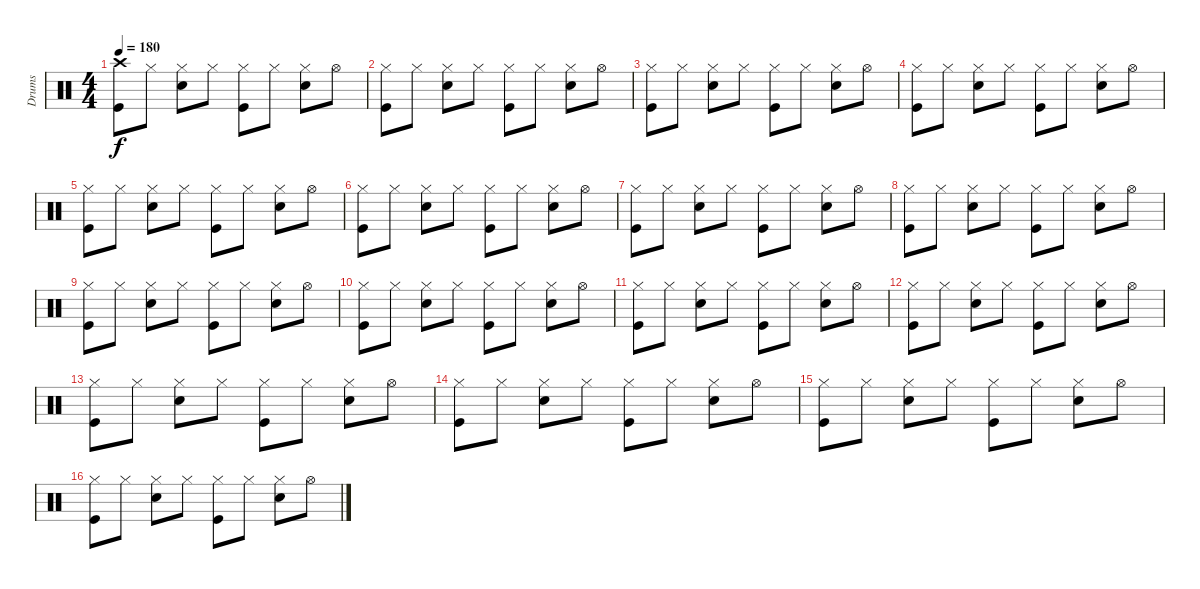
\track ("Drums" "Drums") {instrument percussion}
\staff {score}
\articulation defaults
\ts (4 4)
\tempo 180
\clef neutral
\ks c
("Kick (hit)" "Crash high (hit)").8{dy f} "Hi-Hat (closed)".8 ("Snare (hit) 2" "Hi-Hat (closed)").8 "Hi-Hat (closed)".8 ("Kick (hit)" "Hi-Hat (closed)").8 "Hi-Hat (closed)".8 ("Snare (hit) 2" "Hi-Hat (closed)").8 "Hi-Hat (open)".8 |
("Kick (hit)" "Hi-Hat (closed)").8 "Hi-Hat (closed)".8 ("Snare (hit) 2" "Hi-Hat (closed)").8 "Hi-Hat (closed)".8 ("Kick (hit)" "Hi-Hat (closed)").8 "Hi-Hat (closed)".8 ("Snare (hit) 2" "Hi-Hat (closed)").8 "Hi-Hat (open)".8 |
("Kick (hit)" "Hi-Hat (closed)").8 "Hi-Hat (closed)".8 ("Snare (hit) 2" "Hi-Hat (closed)").8 "Hi-Hat (closed)".8 ("Kick (hit)" "Hi-Hat (closed)").8 "Hi-Hat (closed)".8 ("Snare (hit) 2" "Hi-Hat (closed)").8 "Hi-Hat (open)".8 |
("Kick (hit)" "Hi-Hat (closed)").8 "Hi-Hat (closed)".8 ("Snare (hit) 2" "Hi-Hat (closed)").8 "Hi-Hat (closed)".8 ("Kick (hit)" "Hi-Hat (closed)").8 "Hi-Hat (closed)".8 ("Snare (hit) 2" "Hi-Hat (closed)").8 "Hi-Hat (open)".8 |
("Kick (hit)" "Hi-Hat (closed)").8 "Hi-Hat (closed)".8 ("Snare (hit) 2" "Hi-Hat (closed)").8 "Hi-Hat (closed)".8 ("Kick (hit)" "Hi-Hat (closed)").8 "Hi-Hat (closed)".8 ("Snare (hit) 2" "Hi-Hat (closed)").8 "Hi-Hat (open)".8 |
("Kick (hit)" "Hi-Hat (closed)").8 "Hi-Hat (closed)".8 ("Snare (hit) 2" "Hi-Hat (closed)").8 "Hi-Hat (closed)".8 ("Kick (hit)" "Hi-Hat (closed)").8 "Hi-Hat (closed)".8 ("Snare (hit) 2" "Hi-Hat (closed)").8 "Hi-Hat (open)".8 |
("Kick (hit)" "Hi-Hat (closed)").8 "Hi-Hat (closed)".8 ("Snare (hit) 2" "Hi-Hat (closed)").8 "Hi-Hat (closed)".8 ("Kick (hit)" "Hi-Hat (closed)").8 "Hi-Hat (closed)".8 ("Snare (hit) 2" "Hi-Hat (closed)").8 "Hi-Hat (open)".8 |
("Kick (hit)" "Hi-Hat (closed)").8 "Hi-Hat (closed)".8 ("Snare (hit) 2" "Hi-Hat (closed)").8 "Hi-Hat (closed)".8 ("Kick (hit)" "Hi-Hat (closed)").8 "Hi-Hat (closed)".8 ("Snare (hit) 2" "Hi-Hat (closed)").8 "Hi-Hat (open)".8 |
("Kick (hit)" "Hi-Hat (closed)").8 "Hi-Hat (closed)".8 ("Snare (hit) 2" "Hi-Hat (closed)").8 "Hi-Hat (closed)".8 ("Kick (hit)" "Hi-Hat (closed)").8 "Hi-Hat (closed)".8 ("Snare (hit) 2" "Hi-Hat (closed)").8 "Hi-Hat (open)".8 |
("Kick (hit)" "Hi-Hat (closed)").8 "Hi-Hat (closed)".8 ("Snare (hit) 2" "Hi-Hat (closed)").8 "Hi-Hat (closed)".8 ("Kick (hit)" "Hi-Hat (closed)").8 "Hi-Hat (closed)".8 ("Snare (hit) 2" "Hi-Hat (closed)").8 "Hi-Hat (open)".8 |
("Kick (hit)" "Hi-Hat (closed)").8 "Hi-Hat (closed)".8 ("Snare (hit) 2" "Hi-Hat (closed)").8 "Hi-Hat (closed)".8 ("Kick (hit)" "Hi-Hat (closed)").8 "Hi-Hat (closed)".8 ("Snare (hit) 2" "Hi-Hat (closed)").8 "Hi-Hat (open)".8 |
("Kick (hit)" "Hi-Hat (closed)").8 "Hi-Hat (closed)".8 ("Snare (hit) 2" "Hi-Hat (closed)").8 "Hi-Hat (closed)".8 ("Kick (hit)" "Hi-Hat (closed)").8 "Hi-Hat (closed)".8 ("Snare (hit) 2" "Hi-Hat (closed)").8 "Hi-Hat (open)".8 |
("Kick (hit)" "Hi-Hat (closed)").8 "Hi-Hat (closed)".8 ("Snare (hit) 2" "Hi-Hat (closed)").8 "Hi-Hat (closed)".8 ("Kick (hit)" "Hi-Hat (closed)").8 "Hi-Hat (closed)".8 ("Snare (hit) 2" "Hi-Hat (closed)").8 "Hi-Hat (open)".8 |
("Kick (hit)" "Hi-Hat (closed)").8 "Hi-Hat (closed)".8 ("Snare (hit) 2" "Hi-Hat (closed)").8 "Hi-Hat (closed)".8 ("Kick (hit)" "Hi-Hat (closed)").8 "Hi-Hat (closed)".8 ("Snare (hit) 2" "Hi-Hat (closed)").8 "Hi-Hat (open)".8 |
("Kick (hit)" "Hi-Hat (closed)").8 "Hi-Hat (closed)".8 ("Snare (hit) 2" "Hi-Hat (closed)").8 "Hi-Hat (closed)".8 ("Kick (hit)" "Hi-Hat (closed)").8 "Hi-Hat (closed)".8 ("Snare (hit) 2" "Hi-Hat (closed)").8 "Hi-Hat (open)".8 |
("Kick (hit)" "Hi-Hat (closed)").8 "Hi-Hat (closed)".8 ("Snare (hit) 2" "Hi-Hat (closed)").8 "Hi-Hat (closed)".8 ("Kick (hit)" "Hi-Hat (closed)").8 "Hi-Hat (closed)".8 ("Snare (hit) 2" "Hi-Hat (closed)").8 "Hi-Hat (open)".8
